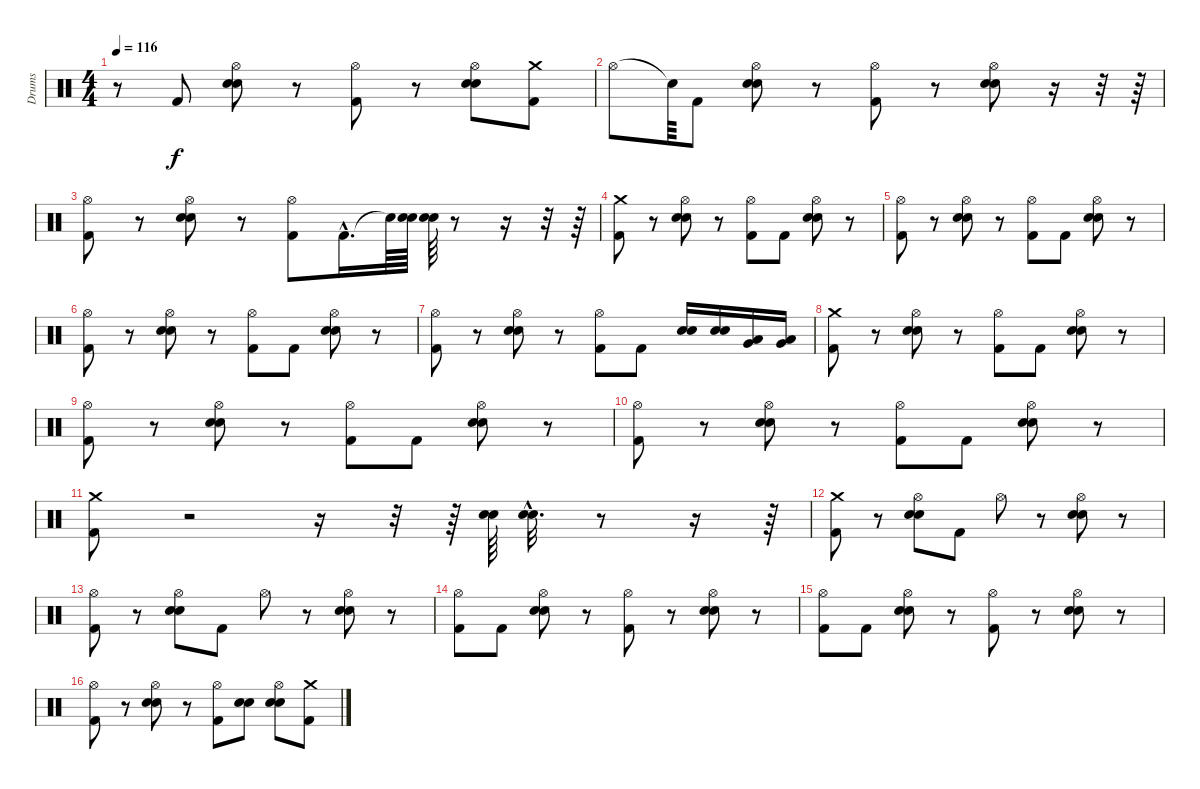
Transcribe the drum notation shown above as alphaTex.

\track ("Drums" "Drums") {instrument percussion}
\staff {score}
\articulation defaults
\ts (4 4)
\tempo 116
\clef neutral
\ks c
r.8{dy f} "Kick (hit) 2".8 ("Hi-Hat (open)" "Snare (hit) 2" "Electric Snare (hit)").8 r.8 ("Kick (hit) 2" "Hi-Hat (open)").8 r.8 ("Hi-Hat (open)" "Snare (hit) 2" "Electric Snare (hit)").8 ("Crash medium (hit)" "Kick (hit) 2").8 |
"Hi-Hat (open)".8 "Snare (hit)"{t}.64 "Kick (hit) 2".8 ("Hi-Hat (open)" "Snare (hit) 2" "Electric Snare (hit)").8 r.8 ("Kick (hit) 2" "Hi-Hat (open)").8 r.8 ("Hi-Hat (open)" "Snare (hit) 2" "Electric Snare (hit)").8 r.16 r.32 r.64 |
("Hi-Hat (open)" "Kick (hit) 2").8 r.8 ("Hi-Hat (open)" "Snare (hit) 2" "Electric Snare (hit)").8 r.8 ("Kick (hit) 2" "Hi-Hat (open)").8 "Kick (hit) 2"{hac}.16{d} "Snare (hit)"{t}.64 ("Electric Snare (hit)" "Snare (hit) 2").64 ("Snare (hit) 2" "Electric Snare (hit)").64 r.8 r.16 r.32 r.64 |
("Crash medium (hit)" "Kick (hit) 2").8 r.8 ("Hi-Hat (open)" "Snare (hit) 2" "Electric Snare (hit)").8 r.8 ("Kick (hit) 2" "Hi-Hat (open)").8 "Kick (hit) 2".8 ("Hi-Hat (open)" "Snare (hit) 2" "Electric Snare (hit)").8 r.8 |
("Hi-Hat (open)" "Kick (hit) 2").8 r.8 ("Hi-Hat (open)" "Snare (hit) 2" "Electric Snare (hit)").8 r.8 ("Kick (hit) 2" "Hi-Hat (open)").8 "Kick (hit) 2".8 ("Hi-Hat (open)" "Snare (hit) 2" "Electric Snare (hit)").8 r.8 |
("Hi-Hat (open)" "Kick (hit) 2").8 r.8 ("Hi-Hat (open)" "Snare (hit) 2" "Electric Snare (hit)").8 r.8 ("Kick (hit) 2" "Hi-Hat (open)").8 "Kick (hit) 2".8 ("Hi-Hat (open)" "Snare (hit) 2" "Electric Snare (hit)").8 r.8 |
("Hi-Hat (open)" "Kick (hit) 2").8 r.8 ("Hi-Hat (open)" "Snare (hit) 2" "Electric Snare (hit)").8 r.8 ("Kick (hit) 2" "Hi-Hat (open)").8 "Kick (hit) 2".8 ("Electric Snare (hit)" "Snare (hit) 2").16 ("Electric Snare (hit)" "Snare (hit) 2").16 ("Very Low Tom (hit)" "Low Tom (hit)").16 ("Very Low Tom (hit)" "Low Tom (hit)").16 |
("Crash medium (hit)" "Kick (hit) 2").8 r.8 ("Hi-Hat (open)" "Snare (hit) 2" "Electric Snare (hit)").8 r.8 ("Kick (hit) 2" "Hi-Hat (open)").8 "Kick (hit) 2".8 ("Hi-Hat (open)" "Snare (hit) 2" "Electric Snare (hit)").8 r.8 |
("Hi-Hat (open)" "Kick (hit) 2").8 r.8 ("Hi-Hat (open)" "Snare (hit) 2" "Electric Snare (hit)").8 r.8 ("Kick (hit) 2" "Hi-Hat (open)").8 "Kick (hit) 2".8 ("Hi-Hat (open)" "Snare (hit) 2" "Electric Snare (hit)").8 r.8 |
("Hi-Hat (open)" "Kick (hit) 2").8 r.8 ("Hi-Hat (open)" "Snare (hit) 2" "Electric Snare (hit)").8 r.8 ("Kick (hit) 2" "Hi-Hat (open)").8 "Kick (hit) 2".8 ("Hi-Hat (open)" "Snare (hit) 2" "Electric Snare (hit)").8 r.8 |
("Crash medium (hit)" "Kick (hit) 2").8 r.2 r.16 r.32 r.64 ("Electric Snare (hit)" "Snare (hit) 2").64 ("Electric Snare (hit)"{hac} "Snare (hit) 2"{hac}).32{d} r.8 r.16 r.64 |
("Crash medium (hit)" "Kick (hit) 2").8 r.8 ("Hi-Hat (open)" "Snare (hit) 2" "Electric Snare (hit)").8 "Kick (hit) 2".8 "Hi-Hat (open)".8 r.8 ("Hi-Hat (open)" "Snare (hit) 2" "Electric Snare (hit)").8 r.8 |
("Hi-Hat (open)" "Kick (hit) 2").8 r.8 ("Hi-Hat (open)" "Snare (hit) 2" "Electric Snare (hit)").8 "Kick (hit) 2".8 "Hi-Hat (open)".8 r.8 ("Hi-Hat (open)" "Snare (hit) 2" "Electric Snare (hit)").8 r.8 |
("Hi-Hat (open)" "Kick (hit) 2").8 "Kick (hit) 2".8 ("Hi-Hat (open)" "Snare (hit) 2" "Electric Snare (hit)").8 r.8 ("Kick (hit) 2" "Hi-Hat (open)").8 r.8 ("Hi-Hat (open)" "Snare (hit) 2" "Electric Snare (hit)").8 r.8 |
("Hi-Hat (open)" "Kick (hit) 2").8 "Kick (hit) 2".8 ("Hi-Hat (open)" "Snare (hit) 2" "Electric Snare (hit)").8 r.8 ("Kick (hit) 2" "Hi-Hat (open)").8 r.8 ("Hi-Hat (open)" "Snare (hit) 2" "Electric Snare (hit)").8 r.8 |
("Hi-Hat (open)" "Kick (hit) 2").8 r.8 ("Hi-Hat (open)" "Snare (hit) 2" "Electric Snare (hit)").8 r.8 ("Hi-Hat (open)" "Kick (hit) 2").8 ("Snare (hit) 2" "Electric Snare (hit)").8 ("Hi-Hat (open)" "Snare (hit) 2" "Electric Snare (hit)").8 ("Crash medium (hit)" "Kick (hit) 2").8
